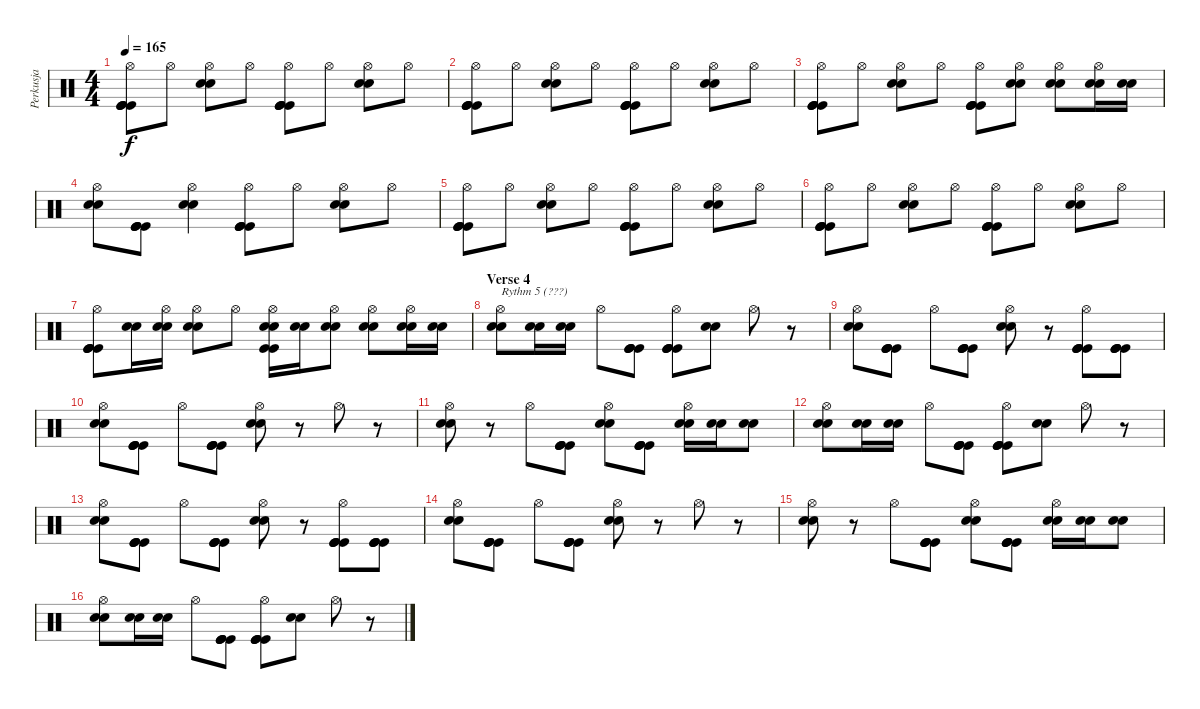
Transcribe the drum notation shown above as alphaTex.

\track ("Perkusja" "Perkusja") {instrument percussion}
\staff {score}
\articulation defaults
\ts (4 4)
\tempo 165
\clef neutral
\ks c
("Hi-Hat (open)" "Kick (hit)" "Kick (hit)" "Kick (hit)" "Kick (hit)").8{dy f} "Hi-Hat (open)".8 ("Hi-Hat (open)" "Snare (hit) 2" "Snare (hit) 2").8 "Hi-Hat (open)".8 ("Hi-Hat (open)" "Kick (hit)" "Kick (hit)" "Kick (hit)" "Kick (hit)").8 "Hi-Hat (open)".8 ("Hi-Hat (open)" "Snare (hit) 2" "Snare (hit) 2").8 "Hi-Hat (open)".8 |
("Hi-Hat (open)" "Kick (hit)" "Kick (hit)" "Kick (hit)" "Kick (hit)").8 "Hi-Hat (open)".8 ("Hi-Hat (open)" "Snare (hit) 2" "Snare (hit) 2").8 "Hi-Hat (open)".8 ("Hi-Hat (open)" "Kick (hit)" "Kick (hit)" "Kick (hit)" "Kick (hit)").8 "Hi-Hat (open)".8 ("Hi-Hat (open)" "Snare (hit) 2" "Snare (hit) 2").8 "Hi-Hat (open)".8 |
("Hi-Hat (open)" "Kick (hit)" "Kick (hit)" "Kick (hit)" "Kick (hit)").8 "Hi-Hat (open)".8 ("Hi-Hat (open)" "Snare (hit) 2" "Snare (hit) 2").8 "Hi-Hat (open)".8 ("Hi-Hat (open)" "Kick (hit)" "Kick (hit)" "Kick (hit)" "Kick (hit)").8 ("Hi-Hat (open)" "Snare (hit) 2" "Snare (hit) 2").8 ("Hi-Hat (open)" "Snare (hit) 2" "Snare (hit) 2").8 ("Hi-Hat (open)" "Snare (hit) 2" "Snare (hit) 2").16 ("Snare (hit) 2" "Snare (hit) 2").16 |
("Hi-Hat (open)" "Snare (hit) 2" "Snare (hit) 2").8 ("Kick (hit)" "Kick (hit)" "Kick (hit)" "Kick (hit)").8 ("Hi-Hat (open)" "Snare (hit) 2" "Snare (hit) 2").4 ("Hi-Hat (open)" "Kick (hit)" "Kick (hit)" "Kick (hit)" "Kick (hit)").8 "Hi-Hat (open)".8 ("Hi-Hat (open)" "Snare (hit) 2" "Snare (hit) 2").8 "Hi-Hat (open)".8 |
("Hi-Hat (open)" "Kick (hit)" "Kick (hit)" "Kick (hit)" "Kick (hit)").8 "Hi-Hat (open)".8 ("Hi-Hat (open)" "Snare (hit) 2" "Snare (hit) 2").8 "Hi-Hat (open)".8 ("Hi-Hat (open)" "Kick (hit)" "Kick (hit)" "Kick (hit)" "Kick (hit)").8 "Hi-Hat (open)".8 ("Hi-Hat (open)" "Snare (hit) 2" "Snare (hit) 2").8 "Hi-Hat (open)".8 |
("Hi-Hat (open)" "Kick (hit)" "Kick (hit)" "Kick (hit)" "Kick (hit)").8 "Hi-Hat (open)".8 ("Hi-Hat (open)" "Snare (hit) 2" "Snare (hit) 2").8 "Hi-Hat (open)".8 ("Hi-Hat (open)" "Kick (hit)" "Kick (hit)" "Kick (hit)" "Kick (hit)").8 "Hi-Hat (open)".8 ("Hi-Hat (open)" "Snare (hit) 2" "Snare (hit) 2").8 "Hi-Hat (open)".8 |
("Hi-Hat (open)" "Kick (hit)" "Kick (hit)" "Kick (hit)" "Kick (hit)").8 ("Snare (hit) 2" "Snare (hit) 2").16 ("Hi-Hat (open)" "Snare (hit) 2" "Snare (hit) 2").16 ("Hi-Hat (open)" "Snare (hit) 2" "Snare (hit) 2").8 "Hi-Hat (open)".8 ("Hi-Hat (open)" "Kick (hit)" "Kick (hit)" "Snare (hit) 2" "Snare (hit) 2").16 ("Snare (hit) 2" "Snare (hit) 2").16 ("Hi-Hat (open)" "Snare (hit) 2" "Snare (hit) 2").8 ("Hi-Hat (open)" "Snare (hit) 2" "Snare (hit) 2").8 ("Hi-Hat (open)" "Snare (hit) 2" "Snare (hit) 2").16 ("Snare (hit) 2" "Snare (hit) 2").16 |
\section ("" "Verse 4")
("Hi-Hat (open)" "Snare (hit) 2" "Snare (hit) 2").8{txt "Rythm 5 (???)"} ("Snare (hit) 2" "Snare (hit) 2").16 ("Snare (hit) 2" "Snare (hit) 2").16 "Hi-Hat (open)".8 ("Kick (hit)" "Kick (hit)" "Kick (hit)" "Kick (hit)").8 ("Hi-Hat (open)" "Kick (hit)" "Kick (hit)" "Kick (hit)" "Kick (hit)").8 ("Snare (hit) 2" "Snare (hit) 2").8 "Hi-Hat (open)".8 r.8 |
("Hi-Hat (open)" "Snare (hit) 2" "Snare (hit) 2").8 ("Kick (hit)" "Kick (hit)" "Kick (hit)" "Kick (hit)").8 "Hi-Hat (open)".8 ("Kick (hit)" "Kick (hit)" "Kick (hit)" "Kick (hit)").8 ("Hi-Hat (open)" "Snare (hit) 2" "Snare (hit) 2").8 r.8 ("Hi-Hat (open)" "Kick (hit)" "Kick (hit)" "Kick (hit)" "Kick (hit)").8 ("Kick (hit)" "Kick (hit)" "Kick (hit)" "Kick (hit)").8 |
("Hi-Hat (open)" "Snare (hit) 2" "Snare (hit) 2").8 ("Kick (hit)" "Kick (hit)" "Kick (hit)" "Kick (hit)").8 "Hi-Hat (open)".8 ("Kick (hit)" "Kick (hit)" "Kick (hit)" "Kick (hit)").8 ("Hi-Hat (open)" "Snare (hit) 2" "Snare (hit) 2").8 r.8 "Hi-Hat (open)".8 r.8 |
("Hi-Hat (open)" "Snare (hit) 2" "Snare (hit) 2").8 r.8 "Hi-Hat (open)".8 ("Kick (hit)" "Kick (hit)" "Kick (hit)" "Kick (hit)").8 ("Hi-Hat (open)" "Snare (hit) 2" "Snare (hit) 2").8 ("Kick (hit)" "Kick (hit)" "Kick (hit)" "Kick (hit)").8 ("Hi-Hat (open)" "Snare (hit) 2" "Snare (hit) 2").16 ("Snare (hit) 2" "Snare (hit) 2").16 ("Snare (hit) 2" "Snare (hit) 2").8 |
("Hi-Hat (open)" "Snare (hit) 2" "Snare (hit) 2").8 ("Snare (hit) 2" "Snare (hit) 2").16 ("Snare (hit) 2" "Snare (hit) 2").16 "Hi-Hat (open)".8 ("Kick (hit)" "Kick (hit)" "Kick (hit)" "Kick (hit)").8 ("Hi-Hat (open)" "Kick (hit)" "Kick (hit)" "Kick (hit)" "Kick (hit)").8 ("Snare (hit) 2" "Snare (hit) 2").8 "Hi-Hat (open)".8 r.8 |
("Hi-Hat (open)" "Snare (hit) 2" "Snare (hit) 2").8 ("Kick (hit)" "Kick (hit)" "Kick (hit)" "Kick (hit)").8 "Hi-Hat (open)".8 ("Kick (hit)" "Kick (hit)" "Kick (hit)" "Kick (hit)").8 ("Hi-Hat (open)" "Snare (hit) 2" "Snare (hit) 2").8 r.8 ("Hi-Hat (open)" "Kick (hit)" "Kick (hit)" "Kick (hit)" "Kick (hit)").8 ("Kick (hit)" "Kick (hit)" "Kick (hit)" "Kick (hit)").8 |
("Hi-Hat (open)" "Snare (hit) 2" "Snare (hit) 2").8 ("Kick (hit)" "Kick (hit)" "Kick (hit)" "Kick (hit)").8 "Hi-Hat (open)".8 ("Kick (hit)" "Kick (hit)" "Kick (hit)" "Kick (hit)").8 ("Hi-Hat (open)" "Snare (hit) 2" "Snare (hit) 2").8 r.8 "Hi-Hat (open)".8 r.8 |
("Hi-Hat (open)" "Snare (hit) 2" "Snare (hit) 2").8 r.8 "Hi-Hat (open)".8 ("Kick (hit)" "Kick (hit)" "Kick (hit)" "Kick (hit)").8 ("Hi-Hat (open)" "Snare (hit) 2" "Snare (hit) 2").8 ("Kick (hit)" "Kick (hit)" "Kick (hit)" "Kick (hit)").8 ("Hi-Hat (open)" "Snare (hit) 2" "Snare (hit) 2").16 ("Snare (hit) 2" "Snare (hit) 2").16 ("Snare (hit) 2" "Snare (hit) 2").8 |
("Hi-Hat (open)" "Snare (hit) 2" "Snare (hit) 2").8 ("Snare (hit) 2" "Snare (hit) 2").16 ("Snare (hit) 2" "Snare (hit) 2").16 "Hi-Hat (open)".8 ("Kick (hit)" "Kick (hit)" "Kick (hit)" "Kick (hit)").8 ("Hi-Hat (open)" "Kick (hit)" "Kick (hit)" "Kick (hit)" "Kick (hit)").8 ("Snare (hit) 2" "Snare (hit) 2").8 "Hi-Hat (open)".8 r.8
